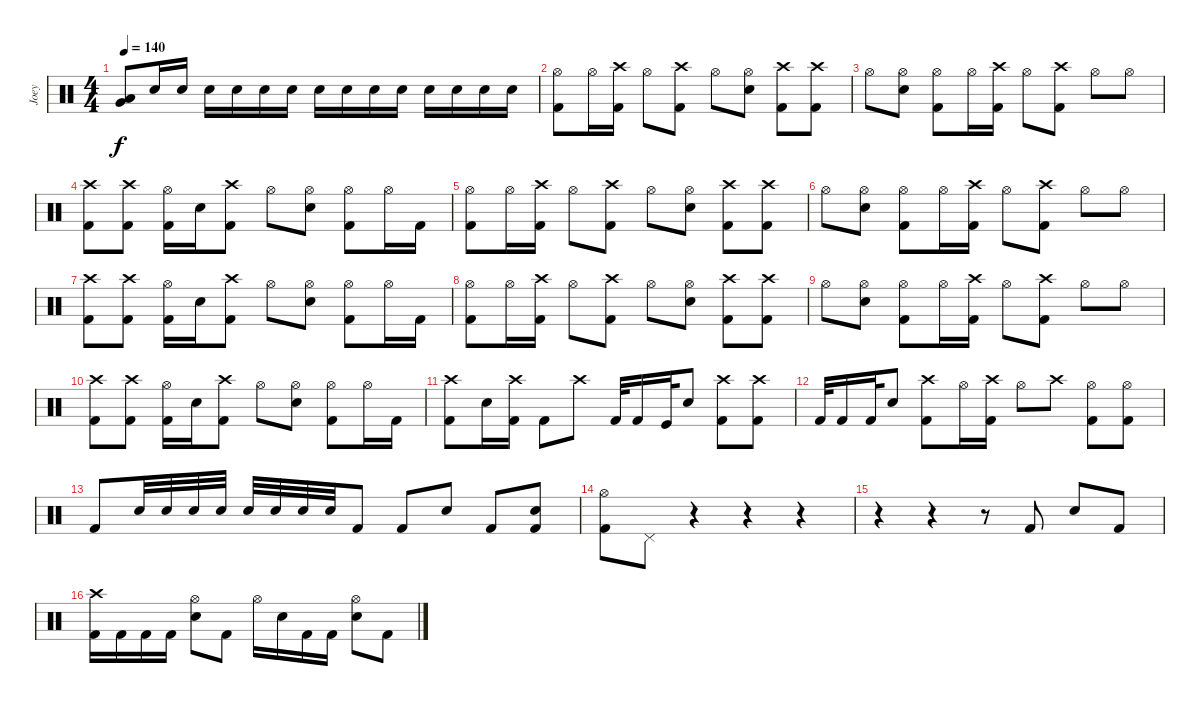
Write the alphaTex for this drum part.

\track ("Joey" "Joey") {instrument percussion}
\staff {score}
\articulation defaults
\ts (4 4)
\tempo 140
\clef neutral
\ks c
("Very Low Tom (hit)" "Low Floor Tom (hit)").8{dy f} "Electric Snare (hit)".16 "Electric Snare (hit)".16 "Electric Snare (hit)".16 "Electric Snare (hit)".16 "Electric Snare (hit)".16 "Electric Snare (hit)".16 "Electric Snare (hit)".16 "Electric Snare (hit)".16 "Electric Snare (hit)".16 "Electric Snare (hit)".16 "Electric Snare (hit)".16 "Electric Snare (hit)".16 "Electric Snare (hit)".16 "Electric Snare (hit)".16 |
("Hi-Hat (open)" "Kick (hit) 2").8 "Hi-Hat (open)".16 ("Crash high (hit)" "Kick (hit) 2").16 "Hi-Hat (open)".8 ("Crash high (hit)" "Kick (hit) 2").8 "Hi-Hat (open)".8 ("Hi-Hat (open)" "Electric Snare (hit)").8 ("Crash high (hit)" "Kick (hit) 2").8 ("Crash high (hit)" "Kick (hit) 2").8 |
"Hi-Hat (open)".8 ("Hi-Hat (open)" "Electric Snare (hit)").8 ("Hi-Hat (open)" "Kick (hit) 2").8 "Hi-Hat (open)".16 ("Crash high (hit)" "Kick (hit) 2").16 "Hi-Hat (open)".8 ("Crash high (hit)" "Kick (hit) 2").8 "Hi-Hat (open)".8 "Hi-Hat (open)".8 |
("Crash high (hit)" "Kick (hit) 2").8 ("Crash high (hit)" "Kick (hit) 2").8 ("Hi-Hat (open)" "Kick (hit) 2").16 "Electric Snare (hit)".16 ("Crash high (hit)" "Kick (hit) 2").8 "Hi-Hat (open)".8 ("Hi-Hat (open)" "Electric Snare (hit)").8 ("Hi-Hat (open)" "Kick (hit) 2").8 "Hi-Hat (open)".16 "Kick (hit) 2".16 |
("Hi-Hat (open)" "Kick (hit) 2").8 "Hi-Hat (open)".16 ("Crash high (hit)" "Kick (hit) 2").16 "Hi-Hat (open)".8 ("Crash high (hit)" "Kick (hit) 2").8 "Hi-Hat (open)".8 ("Hi-Hat (open)" "Electric Snare (hit)").8 ("Crash high (hit)" "Kick (hit) 2").8 ("Crash high (hit)" "Kick (hit) 2").8 |
"Hi-Hat (open)".8 ("Hi-Hat (open)" "Electric Snare (hit)").8 ("Hi-Hat (open)" "Kick (hit) 2").8 "Hi-Hat (open)".16 ("Crash high (hit)" "Kick (hit) 2").16 "Hi-Hat (open)".8 ("Crash high (hit)" "Kick (hit) 2").8 "Hi-Hat (open)".8 "Hi-Hat (open)".8 |
("Crash high (hit)" "Kick (hit) 2").8 ("Crash high (hit)" "Kick (hit) 2").8 ("Hi-Hat (open)" "Kick (hit) 2").16 "Electric Snare (hit)".16 ("Crash high (hit)" "Kick (hit) 2").8 "Hi-Hat (open)".8 ("Hi-Hat (open)" "Electric Snare (hit)").8 ("Hi-Hat (open)" "Kick (hit) 2").8 "Hi-Hat (open)".16 "Kick (hit) 2".16 |
("Hi-Hat (open)" "Kick (hit) 2").8 "Hi-Hat (open)".16 ("Crash high (hit)" "Kick (hit) 2").16 "Hi-Hat (open)".8 ("Crash high (hit)" "Kick (hit) 2").8 "Hi-Hat (open)".8 ("Hi-Hat (open)" "Electric Snare (hit)").8 ("Crash high (hit)" "Kick (hit) 2").8 ("Crash high (hit)" "Kick (hit) 2").8 |
"Hi-Hat (open)".8 ("Hi-Hat (open)" "Electric Snare (hit)").8 ("Hi-Hat (open)" "Kick (hit) 2").8 "Hi-Hat (open)".16 ("Crash high (hit)" "Kick (hit) 2").16 "Hi-Hat (open)".8 ("Crash high (hit)" "Kick (hit) 2").8 "Hi-Hat (open)".8 "Hi-Hat (open)".8 |
("Crash high (hit)" "Kick (hit) 2").8 ("Crash high (hit)" "Kick (hit) 2").8 ("Hi-Hat (open)" "Kick (hit) 2").16 "Electric Snare (hit)".16 ("Crash high (hit)" "Kick (hit) 2").8 "Hi-Hat (open)".8 ("Hi-Hat (open)" "Electric Snare (hit)").8 ("Hi-Hat (open)" "Kick (hit) 2").8 "Hi-Hat (open)".16 "Kick (hit) 2".16 |
("Crash high (hit)" "Kick (hit) 2").8 "Electric Snare (hit)".16 ("Crash high (hit)" "Kick (hit) 2").16 "Kick (hit) 2".8 "Crash high (hit)".8 "Kick (hit) 2".32 "Kick (hit) 2".16 "Kick (hit)".32 "Electric Snare (hit)".8 ("Crash high (hit)" "Kick (hit) 2").8 ("Crash high (hit)" "Kick (hit) 2").8 |
"Kick (hit) 2".32 "Kick (hit) 2".16 "Kick (hit) 2".32 "Electric Snare (hit)".8 ("Crash high (hit)" "Kick (hit) 2").8 "Hi-Hat (open)".16 ("Crash high (hit)" "Kick (hit) 2").16 "Hi-Hat (open)".8 "Crash high (hit)".8 ("Hi-Hat (open)" "Kick (hit) 2").8 ("Hi-Hat (open)" "Kick (hit) 2").8 |
"Kick (hit) 2".8 "Electric Snare (hit)".32 "Electric Snare (hit)".32 "Electric Snare (hit)".32 "Electric Snare (hit)".32 "Electric Snare (hit)".32 "Electric Snare (hit)".32 "Electric Snare (hit)".32 "Electric Snare (hit)".32 "Kick (hit) 2".8 "Kick (hit) 2".8 "Electric Snare (hit)".8 "Kick (hit) 2".8 ("Electric Snare (hit)" "Kick (hit) 2").8 |
("Hi-Hat (open)" "Kick (hit) 2").8 "Pedal Hi-Hat (hit)".8 r.4 r.4 r.4 |
r.4 r.4 r.8 "Kick (hit) 2".8 "Electric Snare (hit)".8 "Kick (hit) 2".8 |
("Crash high (hit)" "Kick (hit) 2").16 "Kick (hit) 2".16 "Kick (hit) 2".16 "Kick (hit) 2".16 ("Hi-Hat (open)" "Electric Snare (hit)").8 "Kick (hit) 2".8 "Hi-Hat (open)".16 "Electric Snare (hit)".16 "Kick (hit) 2".16 "Kick (hit) 2".16 ("Hi-Hat (open)" "Electric Snare (hit)").8 "Kick (hit) 2".8
